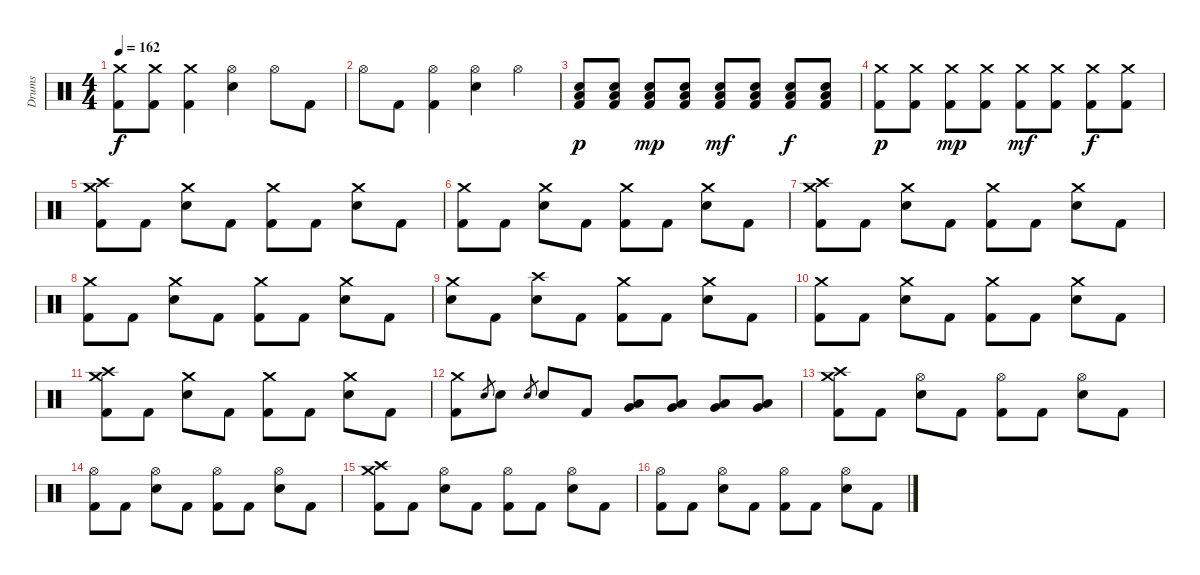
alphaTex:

\track ("Drums" "Drums") {instrument percussion}
\staff {score}
\articulation defaults
\ts (4 4)
\tempo 162
\clef neutral
\ks c
("Crash medium (hit)" "Kick (hit) 2").8{dy f} ("Crash medium (hit)" "Kick (hit) 2").8 ("Crash medium (hit)" "Kick (hit) 2").4 ("Hi-Hat (open)" "Electric Snare (hit)").4 "Hi-Hat (open)".8 "Kick (hit) 2".8 |
"Hi-Hat (open)".8 "Kick (hit) 2".8 ("Hi-Hat (open)" "Kick (hit) 2").4 ("Hi-Hat (open)" "Electric Snare (hit)").4 "Hi-Hat (open)".4 |
("Low Floor Tom (hit)" "Electric Snare (hit)" "Kick (hit) 2").8{dy p} ("Low Floor Tom (hit)" "Electric Snare (hit)" "Kick (hit) 2").8 ("Low Floor Tom (hit)" "Electric Snare (hit)" "Kick (hit) 2").8{dy mp} ("Low Floor Tom (hit)" "Electric Snare (hit)" "Kick (hit) 2").8 ("Low Floor Tom (hit)" "Electric Snare (hit)" "Kick (hit) 2").8{dy mf} ("Low Floor Tom (hit)" "Electric Snare (hit)" "Kick (hit) 2").8 ("Low Floor Tom (hit)" "Electric Snare (hit)" "Kick (hit) 2").8{dy f} ("Low Floor Tom (hit)" "Electric Snare (hit)" "Kick (hit) 2").8 |
("Crash medium (hit)" "Kick (hit) 2").8{dy p} ("Crash medium (hit)" "Kick (hit) 2").8 ("Crash medium (hit)" "Kick (hit) 2").8{dy mp} ("Crash medium (hit)" "Kick (hit) 2").8 ("Crash medium (hit)" "Kick (hit) 2").8{dy mf} ("Crash medium (hit)" "Kick (hit) 2").8 ("Crash medium (hit)" "Kick (hit) 2").8{dy f} ("Crash medium (hit)" "Kick (hit) 2").8 |
("Crash medium (hit)" "Crash high (hit)" "Kick (hit) 2").8 "Kick (hit) 2".8 ("Crash medium (hit)" "Electric Snare (hit)").8 "Kick (hit) 2".8 ("Crash medium (hit)" "Kick (hit) 2").8 "Kick (hit) 2".8 ("Crash medium (hit)" "Electric Snare (hit)").8 "Kick (hit) 2".8 |
("Crash medium (hit)" "Kick (hit) 2").8 "Kick (hit) 2".8 ("Crash medium (hit)" "Electric Snare (hit)").8 "Kick (hit) 2".8 ("Crash medium (hit)" "Kick (hit) 2").8 "Kick (hit) 2".8 ("Crash medium (hit)" "Electric Snare (hit)").8 "Kick (hit) 2".8 |
("Crash medium (hit)" "Crash high (hit)" "Kick (hit) 2").8 "Kick (hit) 2".8 ("Crash medium (hit)" "Electric Snare (hit)").8 "Kick (hit) 2".8 ("Crash medium (hit)" "Kick (hit) 2").8 "Kick (hit) 2".8 ("Crash medium (hit)" "Electric Snare (hit)").8 "Kick (hit) 2".8 |
("Crash medium (hit)" "Kick (hit) 2").8 "Kick (hit) 2".8 ("Crash medium (hit)" "Electric Snare (hit)").8 "Kick (hit) 2".8 ("Crash medium (hit)" "Kick (hit) 2").8 "Kick (hit) 2".8 ("Crash medium (hit)" "Electric Snare (hit)").8 "Kick (hit) 2".8 |
("Crash medium (hit)" "Electric Snare (hit)").8 "Kick (hit) 2".8 ("Crash high (hit)" "Electric Snare (hit)").8 "Kick (hit) 2".8 ("Crash medium (hit)" "Kick (hit) 2").8 "Kick (hit) 2".8 ("Crash medium (hit)" "Electric Snare (hit)").8 "Kick (hit) 2".8 |
("Crash medium (hit)" "Kick (hit) 2").8 "Kick (hit) 2".8 ("Crash medium (hit)" "Electric Snare (hit)").8 "Kick (hit) 2".8 ("Crash medium (hit)" "Kick (hit) 2").8 "Kick (hit) 2".8 ("Crash medium (hit)" "Electric Snare (hit)").8 "Kick (hit) 2".8 |
("Crash medium (hit)" "Crash high (hit)" "Kick (hit) 2").8 "Kick (hit) 2".8 ("Crash medium (hit)" "Electric Snare (hit)").8 "Kick (hit) 2".8 ("Crash medium (hit)" "Kick (hit) 2").8 "Kick (hit) 2".8 ("Crash medium (hit)" "Electric Snare (hit)").8 "Kick (hit) 2".8 |
("Crash medium (hit)" "Kick (hit) 2").8 "Electric Snare (hit)".8{gr} "Electric Snare (hit)".8 "Electric Snare (hit)".8{gr} "Electric Snare (hit)".8 "Kick (hit) 2".8 ("Very Low Tom (hit)" "Low Tom (hit)").8{bd 120} ("Very Low Tom (hit)" "Low Tom (hit)").8{bd 120} ("Low Floor Tom (hit)" "Very Low Tom (hit)").8{bd 120} ("Low Floor Tom (hit)" "Very Low Tom (hit)").8{bd 120} |
("Crash medium (hit)" "Crash high (hit)" "Kick (hit) 2").8 "Kick (hit) 2".8 ("Hi-Hat (open)" "Electric Snare (hit)").8 "Kick (hit) 2".8 ("Hi-Hat (open)" "Kick (hit) 2").8 "Kick (hit) 2".8 ("Hi-Hat (open)" "Electric Snare (hit)").8 "Kick (hit) 2".8 |
("Hi-Hat (open)" "Kick (hit) 2").8 "Kick (hit) 2".8 ("Hi-Hat (open)" "Electric Snare (hit)").8 "Kick (hit) 2".8 ("Hi-Hat (open)" "Kick (hit) 2").8 "Kick (hit) 2".8 ("Hi-Hat (open)" "Electric Snare (hit)").8 "Kick (hit) 2".8 |
("Crash medium (hit)" "Crash high (hit)" "Kick (hit) 2").8 "Kick (hit) 2".8 ("Hi-Hat (open)" "Electric Snare (hit)").8 "Kick (hit) 2".8 ("Hi-Hat (open)" "Kick (hit) 2").8 "Kick (hit) 2".8 ("Hi-Hat (open)" "Electric Snare (hit)").8 "Kick (hit) 2".8 |
("Hi-Hat (open)" "Kick (hit) 2").8 "Kick (hit) 2".8 ("Hi-Hat (open)" "Electric Snare (hit)").8 "Kick (hit) 2".8 ("Hi-Hat (open)" "Kick (hit) 2").8 "Kick (hit) 2".8 ("Hi-Hat (open)" "Electric Snare (hit)").8 "Kick (hit) 2".8
